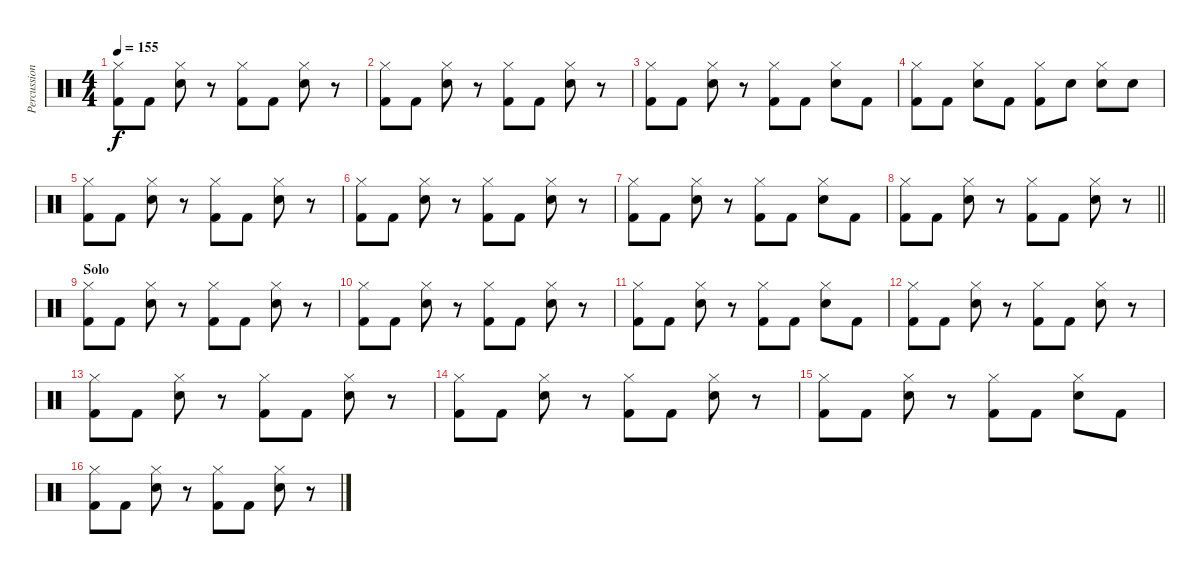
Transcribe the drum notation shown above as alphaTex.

\track ("Percussions" "Percussion") {mute instrument percussion}
\staff {score}
\articulation defaults
\ts (4 4)
\tempo 155
\clef neutral
\ks c
("Hi-Hat (closed)" "Kick (hit) 2").8{dy f} "Kick (hit) 2".8 ("Hi-Hat (closed)" "Electric Snare (hit)").8 r.8 ("Hi-Hat (closed)" "Kick (hit) 2").8 "Kick (hit) 2".8 ("Hi-Hat (closed)" "Electric Snare (hit)").8 r.8 |
("Hi-Hat (closed)" "Kick (hit) 2").8 "Kick (hit) 2".8 ("Hi-Hat (closed)" "Electric Snare (hit)").8 r.8 ("Hi-Hat (closed)" "Kick (hit) 2").8 "Kick (hit) 2".8 ("Hi-Hat (closed)" "Electric Snare (hit)").8 r.8 |
("Hi-Hat (closed)" "Kick (hit) 2").8 "Kick (hit) 2".8 ("Hi-Hat (closed)" "Electric Snare (hit)").8 r.8 ("Hi-Hat (closed)" "Kick (hit) 2").8 "Kick (hit) 2".8 ("Hi-Hat (closed)" "Electric Snare (hit)").8 "Kick (hit) 2".8 |
("Hi-Hat (closed)" "Kick (hit) 2").8 "Kick (hit) 2".8 ("Hi-Hat (closed)" "Electric Snare (hit)").8 "Kick (hit) 2".8 ("Hi-Hat (closed)" "Kick (hit) 2").8 "Electric Snare (hit)".8 ("Hi-Hat (closed)" "Electric Snare (hit)").8 "Electric Snare (hit)".8 |
("Hi-Hat (closed)" "Kick (hit) 2").8 "Kick (hit) 2".8 ("Hi-Hat (closed)" "Electric Snare (hit)").8 r.8 ("Hi-Hat (closed)" "Kick (hit) 2").8 "Kick (hit) 2".8 ("Hi-Hat (closed)" "Electric Snare (hit)").8 r.8 |
("Hi-Hat (closed)" "Kick (hit) 2").8 "Kick (hit) 2".8 ("Hi-Hat (closed)" "Electric Snare (hit)").8 r.8 ("Hi-Hat (closed)" "Kick (hit) 2").8 "Kick (hit) 2".8 ("Hi-Hat (closed)" "Electric Snare (hit)").8 r.8 |
("Hi-Hat (closed)" "Kick (hit) 2").8 "Kick (hit) 2".8 ("Hi-Hat (closed)" "Electric Snare (hit)").8 r.8 ("Hi-Hat (closed)" "Kick (hit) 2").8 "Kick (hit) 2".8 ("Hi-Hat (closed)" "Electric Snare (hit)").8 "Kick (hit) 2".8 |
\barLineRight lightlight
("Hi-Hat (closed)" "Kick (hit) 2").8 "Kick (hit) 2".8 ("Hi-Hat (closed)" "Electric Snare (hit)").8 r.8 ("Hi-Hat (closed)" "Kick (hit) 2").8 "Kick (hit) 2".8 ("Hi-Hat (closed)" "Electric Snare (hit)").8 r.8 |
\section ("" "Solo")
("Hi-Hat (closed)" "Kick (hit) 2").8 "Kick (hit) 2".8 ("Hi-Hat (closed)" "Electric Snare (hit)").8 r.8 ("Hi-Hat (closed)" "Kick (hit) 2").8 "Kick (hit) 2".8 ("Hi-Hat (closed)" "Electric Snare (hit)").8 r.8 |
("Hi-Hat (closed)" "Kick (hit) 2").8 "Kick (hit) 2".8 ("Hi-Hat (closed)" "Electric Snare (hit)").8 r.8 ("Hi-Hat (closed)" "Kick (hit) 2").8 "Kick (hit) 2".8 ("Hi-Hat (closed)" "Electric Snare (hit)").8 r.8 |
("Hi-Hat (closed)" "Kick (hit) 2").8 "Kick (hit) 2".8 ("Hi-Hat (closed)" "Electric Snare (hit)").8 r.8 ("Hi-Hat (closed)" "Kick (hit) 2").8 "Kick (hit) 2".8 ("Hi-Hat (closed)" "Electric Snare (hit)").8 "Kick (hit) 2".8 |
("Hi-Hat (closed)" "Kick (hit) 2").8 "Kick (hit) 2".8 ("Hi-Hat (closed)" "Electric Snare (hit)").8 r.8 ("Hi-Hat (closed)" "Kick (hit) 2").8 "Kick (hit) 2".8 ("Hi-Hat (closed)" "Electric Snare (hit)").8 r.8 |
("Hi-Hat (closed)" "Kick (hit) 2").8 "Kick (hit) 2".8 ("Hi-Hat (closed)" "Electric Snare (hit)").8 r.8 ("Hi-Hat (closed)" "Kick (hit) 2").8 "Kick (hit) 2".8 ("Hi-Hat (closed)" "Electric Snare (hit)").8 r.8 |
("Hi-Hat (closed)" "Kick (hit) 2").8 "Kick (hit) 2".8 ("Hi-Hat (closed)" "Electric Snare (hit)").8 r.8 ("Hi-Hat (closed)" "Kick (hit) 2").8 "Kick (hit) 2".8 ("Hi-Hat (closed)" "Electric Snare (hit)").8 r.8 |
("Hi-Hat (closed)" "Kick (hit) 2").8 "Kick (hit) 2".8 ("Hi-Hat (closed)" "Electric Snare (hit)").8 r.8 ("Hi-Hat (closed)" "Kick (hit) 2").8 "Kick (hit) 2".8 ("Hi-Hat (closed)" "Electric Snare (hit)").8 "Kick (hit) 2".8 |
("Hi-Hat (closed)" "Kick (hit) 2").8 "Kick (hit) 2".8 ("Hi-Hat (closed)" "Electric Snare (hit)").8 r.8 ("Hi-Hat (closed)" "Kick (hit) 2").8 "Kick (hit) 2".8 ("Hi-Hat (closed)" "Electric Snare (hit)").8 r.8
